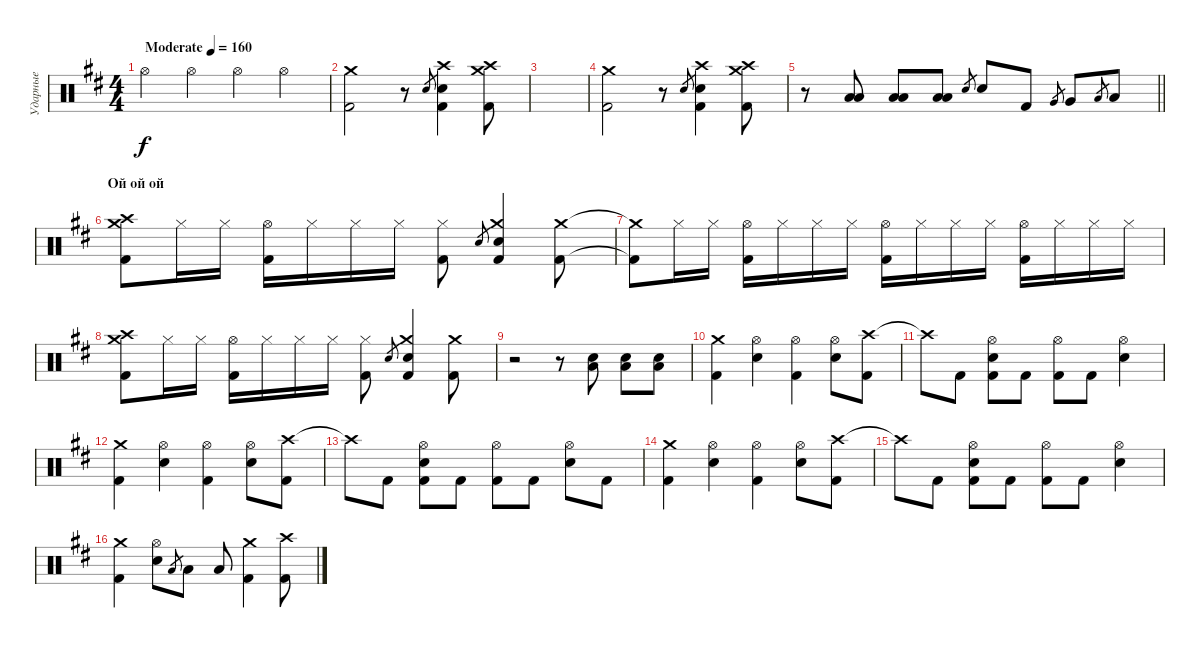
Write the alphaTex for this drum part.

\track ("Ударные" "Ударные") {instrument percussion}
\staff {score}
\articulation defaults
\ts (4 4)
\tempo (160 "Moderate")
\clef neutral
\ks bminor "Hi-Hat (open)".4{dy f} "Hi-Hat (open)".4 "Hi-Hat (open)".4 "Hi-Hat (open)".4
|
("Kick (hit) 2" "Crash medium (hit)").2 r.8 "Snare (hit) 2".8{gr} ("Snare (hit) 2" "Kick (hit) 2" "Crash high (hit)").4 ("Crash medium (hit)" "Kick (hit) 2" "Crash high (hit)").8 |
|
("Kick (hit) 2" "Crash medium (hit)").2 r.8 "Snare (hit) 2".8{gr} ("Snare (hit) 2" "Kick (hit) 2" "Crash high (hit)").4 ("Crash medium (hit)" "Kick (hit) 2" "Crash high (hit)").8 |
\barLineRight lightlight
r.8 ("Low Tom (hit)" "Low Floor Tom (hit)").8 ("Low Tom (hit)" "Low Floor Tom (hit)").8 ("Low Tom (hit)" "Low Floor Tom (hit)").8 "Snare (hit) 2".8{gr} "Snare (hit) 2".8 "Kick (hit) 2".8 "Very Low Tom (hit)".8{gr} "Very Low Tom (hit)".8 "Low Floor Tom (hit)".8{gr} "Low Floor Tom (hit)".8 |
\section ("" "Ой ой ой ")
("Crash medium (hit)" "Crash high (hit)" "Kick (hit) 2").8 "Hi-Hat (closed)".16 "Hi-Hat (closed)".16 ("Hi-Hat (open)" "Kick (hit) 2").16 "Hi-Hat (closed)".16 "Hi-Hat (closed)".16 "Hi-Hat (closed)".16 ("Hi-Hat (closed)" "Kick (hit) 2").8 "Snare (hit) 2".8{gr} ("Crash medium (hit)" "Kick (hit) 2" "Snare (hit) 2").4 ("Crash medium (hit)" "Kick (hit) 2").8 |
("Crash medium (hit)"{t} "Kick (hit) 2"{t}).8 "Hi-Hat (closed)".16 "Hi-Hat (closed)".16 ("Hi-Hat (open)" "Kick (hit) 2").16 "Hi-Hat (closed)".16 "Hi-Hat (closed)".16 "Hi-Hat (closed)".16 ("Hi-Hat (open)" "Kick (hit) 2").16 "Hi-Hat (closed)".16 "Hi-Hat (closed)".16 "Hi-Hat (closed)".16 ("Hi-Hat (open)" "Kick (hit) 2").16 "Hi-Hat (closed)".16 "Hi-Hat (closed)".16 "Hi-Hat (closed)".16 |
("Crash medium (hit)" "Crash high (hit)" "Kick (hit) 2").8 "Hi-Hat (closed)".16 "Hi-Hat (closed)".16 ("Hi-Hat (open)" "Kick (hit) 2").16 "Hi-Hat (closed)".16 "Hi-Hat (closed)".16 "Hi-Hat (closed)".16 ("Hi-Hat (closed)" "Kick (hit) 2").8 "Snare (hit) 2".8{gr} ("Crash medium (hit)" "Kick (hit) 2" "Snare (hit) 2").4 ("Crash medium (hit)" "Kick (hit) 2").8 |
r.2 r.8 ("Low Floor Tom (hit)" "Snare (hit) 2").8 ("Low Floor Tom (hit)" "Snare (hit) 2").8 ("Low Floor Tom (hit)" "Snare (hit) 2").8 |
("Crash medium (hit)" "Kick (hit) 2").4 ("Hi-Hat (open)" "Snare (hit) 2").4 ("Hi-Hat (open)" "Kick (hit) 2").4 ("Hi-Hat (open)" "Snare (hit) 2").8 ("Crash high (hit)" "Kick (hit) 2").8 |
"Crash high (hit)"{t}.8 "Kick (hit) 2".8 ("Snare (hit) 2" "Hi-Hat (open)" "Kick (hit) 2").8 "Kick (hit) 2".8 ("Hi-Hat (open)" "Kick (hit) 2").8 "Kick (hit) 2".8 ("Snare (hit) 2" "Hi-Hat (open)").4 |
("Crash medium (hit)" "Kick (hit) 2").4 ("Hi-Hat (open)" "Snare (hit) 2").4 ("Hi-Hat (open)" "Kick (hit) 2").4 ("Hi-Hat (open)" "Snare (hit) 2").8 ("Crash high (hit)" "Kick (hit) 2").8 |
"Crash high (hit)"{t}.8 "Kick (hit) 2".8 ("Snare (hit) 2" "Hi-Hat (open)" "Kick (hit) 2").8 "Kick (hit) 2".8 ("Hi-Hat (open)" "Kick (hit) 2").8 "Kick (hit) 2".8 ("Snare (hit) 2" "Hi-Hat (open)").8 "Kick (hit) 2".8 |
("Crash medium (hit)" "Kick (hit) 2").4 ("Hi-Hat (open)" "Snare (hit) 2").4 ("Hi-Hat (open)" "Kick (hit) 2").4 ("Hi-Hat (open)" "Snare (hit) 2").8 ("Crash high (hit)" "Kick (hit) 2").8 |
"Crash high (hit)"{t}.8 "Kick (hit) 2".8 ("Snare (hit) 2" "Hi-Hat (open)" "Kick (hit) 2").8 "Kick (hit) 2".8 ("Hi-Hat (open)" "Kick (hit) 2").8 "Kick (hit) 2".8 ("Snare (hit) 2" "Hi-Hat (open)").4 |
("Crash medium (hit)" "Kick (hit) 2").4 ("Hi-Hat (open)" "Snare (hit) 2").8 "Low Tom (hit)".8{gr} "Low Tom (hit)".8 "Low Tom (hit)".8 ("Kick (hit) 2" "Crash medium (hit)").4 ("Crash high (hit)" "Kick (hit) 2").8
